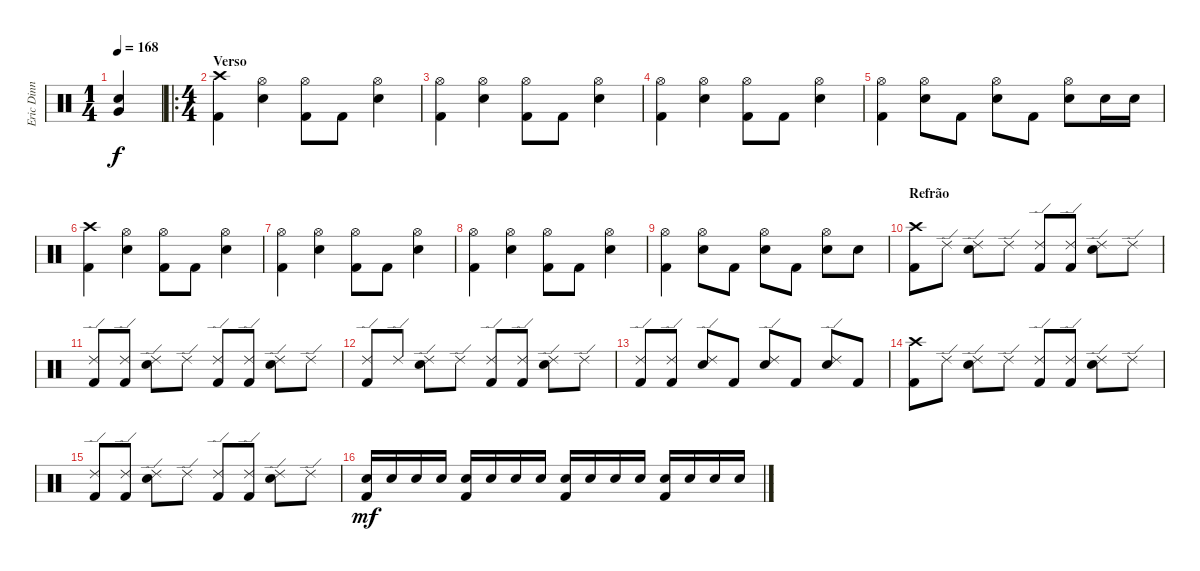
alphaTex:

\track ("Eric Dinn" "Eric Dinn") {instrument percussion}
\staff {score}
\articulation defaults
\ts (1 4)
\tempo 168
\clef neutral
\ks c
("Very Low Tom (hit)" "Snare (hit) 2").4{dy f} |
\ro
\ts (4 4)
\section ("" "Verso")
("Crash high (hit)" "Kick (hit) 2").4 ("Hi-Hat (open)" "Snare (hit) 2").4 ("Hi-Hat (open)" "Kick (hit) 2").8 "Kick (hit) 2".8 ("Hi-Hat (open)" "Snare (hit) 2").4 |
("Hi-Hat (open)" "Kick (hit) 2").4 ("Hi-Hat (open)" "Snare (hit) 2").4 ("Hi-Hat (open)" "Kick (hit) 2").8 "Kick (hit) 2".8 ("Hi-Hat (open)" "Snare (hit) 2").4 |
("Hi-Hat (open)" "Kick (hit) 2").4 ("Hi-Hat (open)" "Snare (hit) 2").4 ("Hi-Hat (open)" "Kick (hit) 2").8 "Kick (hit) 2".8 ("Hi-Hat (open)" "Snare (hit) 2").4 |
("Hi-Hat (open)" "Kick (hit) 2").4 ("Hi-Hat (open)" "Snare (hit) 2").8 "Kick (hit) 2".8 ("Hi-Hat (open)" "Snare (hit) 2").8 "Kick (hit) 2".8 ("Hi-Hat (open)" "Snare (hit) 2").8 "Snare (hit) 2".16 "Snare (hit) 2".16 |
("Crash high (hit)" "Kick (hit) 2").4 ("Hi-Hat (open)" "Snare (hit) 2").4 ("Hi-Hat (open)" "Kick (hit) 2").8 "Kick (hit) 2".8 ("Hi-Hat (open)" "Snare (hit) 2").4 |
("Hi-Hat (open)" "Kick (hit) 2").4 ("Hi-Hat (open)" "Snare (hit) 2").4 ("Hi-Hat (open)" "Kick (hit) 2").8 "Kick (hit) 2".8 ("Hi-Hat (open)" "Snare (hit) 2").4 |
("Hi-Hat (open)" "Kick (hit) 2").4 ("Hi-Hat (open)" "Snare (hit) 2").4 ("Hi-Hat (open)" "Kick (hit) 2").8 "Kick (hit) 2".8 ("Hi-Hat (open)" "Snare (hit) 2").4 |
("Hi-Hat (open)" "Kick (hit) 2").4 ("Hi-Hat (open)" "Snare (hit) 2").8 "Kick (hit) 2".8 ("Hi-Hat (open)" "Snare (hit) 2").8 "Kick (hit) 2".8 ("Hi-Hat (open)" "Snare (hit) 2").8 "Snare (hit) 2".8 |
\section ("" "Refrão")
("Crash high (hit)" "Kick (hit) 2").8 "Ride (edge) 2".8 ("Ride (edge) 2" "Snare (hit) 2").8 "Ride (edge) 2".8 ("Ride (edge) 2" "Kick (hit) 2").8 ("Ride (edge) 2" "Kick (hit) 2").8 ("Ride (edge) 2" "Snare (hit) 2").8 "Ride (edge) 2".8 |
("Ride (edge) 2" "Kick (hit) 2").8 ("Ride (edge) 2" "Kick (hit) 2").8 ("Ride (edge) 2" "Snare (hit) 2").8 "Ride (edge) 2".8 ("Ride (edge) 2" "Kick (hit) 2").8 ("Ride (edge) 2" "Kick (hit) 2").8 ("Ride (edge) 2" "Snare (hit) 2").8 "Ride (edge) 2".8 |
("Ride (edge) 2" "Kick (hit) 2").8 "Ride (edge) 2".8 ("Ride (edge) 2" "Snare (hit) 2").8 "Ride (edge) 2".8 ("Ride (edge) 2" "Kick (hit) 2").8 ("Ride (edge) 2" "Kick (hit) 2").8 ("Ride (edge) 2" "Snare (hit) 2").8 "Ride (edge) 2".8 |
("Ride (edge) 2" "Kick (hit) 2").8 ("Ride (edge) 2" "Kick (hit) 2").8 ("Ride (edge) 2" "Snare (hit) 2").8 "Kick (hit) 2".8 ("Ride (edge) 2" "Snare (hit) 2").8 "Kick (hit) 2".8 ("Ride (edge) 2" "Snare (hit) 2").8 "Kick (hit) 2".8 |
("Crash high (hit)" "Kick (hit) 2").8 "Ride (edge) 2".8 ("Ride (edge) 2" "Snare (hit) 2").8 "Ride (edge) 2".8 ("Ride (edge) 2" "Kick (hit) 2").8 ("Ride (edge) 2" "Kick (hit) 2").8 ("Ride (edge) 2" "Snare (hit) 2").8 "Ride (edge) 2".8 |
("Ride (edge) 2" "Kick (hit) 2").8 ("Ride (edge) 2" "Kick (hit) 2").8 ("Ride (edge) 2" "Snare (hit) 2").8 "Ride (edge) 2".8 ("Ride (edge) 2" "Kick (hit) 2").8 ("Ride (edge) 2" "Kick (hit) 2").8 ("Ride (edge) 2" "Snare (hit) 2").8 "Ride (edge) 2".8 |
("Snare (hit) 2" "Kick (hit) 2").16{dy mf} "Snare (hit) 2".16 "Snare (hit) 2".16 "Snare (hit) 2".16 ("Snare (hit) 2" "Kick (hit) 2").16 "Snare (hit) 2".16 "Snare (hit) 2".16 "Snare (hit) 2".16 ("Snare (hit) 2" "Kick (hit) 2").16 "Snare (hit) 2".16 "Snare (hit) 2".16 "Snare (hit) 2".16 ("Snare (hit) 2" "Kick (hit) 2").16 "Snare (hit) 2".16 "Snare (hit) 2".16 "Snare (hit) 2".16
